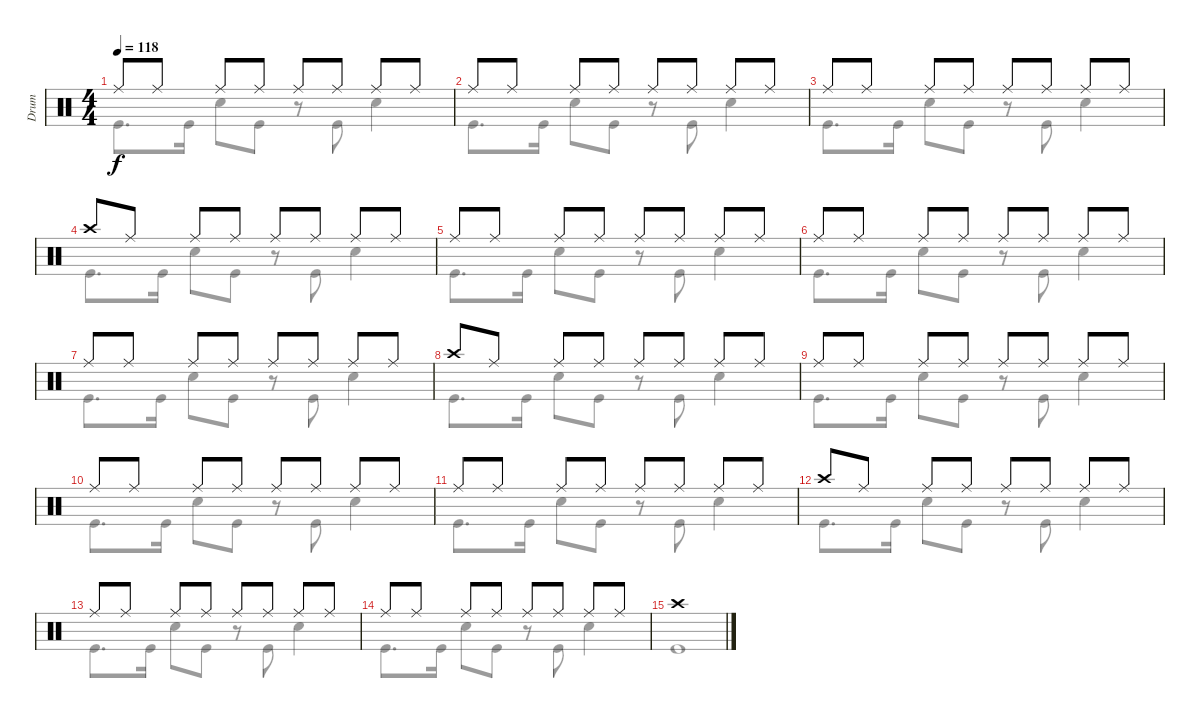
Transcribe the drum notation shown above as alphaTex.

\track ("Drum" "Drum") {instrument percussion}
\staff {score}
\articulation defaults
\voice
\ts (4 4)
\tempo 118
\clef neutral
\ks c "Ride (middle)".8{dy f} "Ride (middle)".8 "Ride (middle)".8 "Ride (middle)".8 "Ride (middle)".8 "Ride (middle)".8 "Ride (middle)".8 "Ride (middle)".8
|
"Ride (middle)".8 "Ride (middle)".8 "Ride (middle)".8 "Ride (middle)".8 "Ride (middle)".8 "Ride (middle)".8 "Ride (middle)".8 "Ride (middle)".8 |
"Ride (middle)".8 "Ride (middle)".8 "Ride (middle)".8 "Ride (middle)".8 "Ride (middle)".8 "Ride (middle)".8 "Ride (middle)".8 "Ride (middle)".8 |
"Crash high (hit)".8 "Ride (middle)".8 "Ride (middle)".8 "Ride (middle)".8 "Ride (middle)".8 "Ride (middle)".8 "Ride (middle)".8 "Ride (middle)".8 |
"Ride (middle)".8 "Ride (middle)".8 "Ride (middle)".8 "Ride (middle)".8 "Ride (middle)".8 "Ride (middle)".8 "Ride (middle)".8 "Ride (middle)".8 |
"Ride (middle)".8 "Ride (middle)".8 "Ride (middle)".8 "Ride (middle)".8 "Ride (middle)".8 "Ride (middle)".8 "Ride (middle)".8 "Ride (middle)".8 |
"Ride (middle)".8 "Ride (middle)".8 "Ride (middle)".8 "Ride (middle)".8 "Ride (middle)".8 "Ride (middle)".8 "Ride (middle)".8 "Ride (middle)".8 |
"Crash high (hit)".8 "Ride (middle)".8 "Ride (middle)".8 "Ride (middle)".8 "Ride (middle)".8 "Ride (middle)".8 "Ride (middle)".8 "Ride (middle)".8 |
"Ride (middle)".8 "Ride (middle)".8 "Ride (middle)".8 "Ride (middle)".8 "Ride (middle)".8 "Ride (middle)".8 "Ride (middle)".8 "Ride (middle)".8 |
"Ride (middle)".8 "Ride (middle)".8 "Ride (middle)".8 "Ride (middle)".8 "Ride (middle)".8 "Ride (middle)".8 "Ride (middle)".8 "Ride (middle)".8 |
"Ride (middle)".8 "Ride (middle)".8 "Ride (middle)".8 "Ride (middle)".8 "Ride (middle)".8 "Ride (middle)".8 "Ride (middle)".8 "Ride (middle)".8 |
"Crash high (hit)".8 "Ride (middle)".8 "Ride (middle)".8 "Ride (middle)".8 "Ride (middle)".8 "Ride (middle)".8 "Ride (middle)".8 "Ride (middle)".8 |
"Ride (middle)".8 "Ride (middle)".8 "Ride (middle)".8 "Ride (middle)".8 "Ride (middle)".8 "Ride (middle)".8 "Ride (middle)".8 "Ride (middle)".8 |
"Ride (middle)".8 "Ride (middle)".8 "Ride (middle)".8 "Ride (middle)".8 "Ride (middle)".8 "Ride (middle)".8 "Ride (middle)".8 "Ride (middle)".8 |
"Crash high (hit)".1
\voice
\clef neutral
\ottava regular
\simile none
\ks c "Kick (hit)".8{d dy f} "Kick (hit)".16 "Snare (hit) 2".8 "Kick (hit)".8
r.8 "Kick (hit)".8 "Snare (hit) 2".4 |
"Kick (hit)".8{d} "Kick (hit)".16 "Snare (hit) 2".8 "Kick (hit)".8 r.8 "Kick (hit)".8 "Snare (hit) 2".4 |
"Kick (hit)".8{d} "Kick (hit)".16 "Snare (hit) 2".8 "Kick (hit)".8 r.8 "Kick (hit)".8 "Snare (hit) 2".4 |
"Kick (hit)".8{d} "Kick (hit)".16 "Snare (hit) 2".8 "Kick (hit)".8 r.8 "Kick (hit)".8 "Snare (hit) 2".4 |
"Kick (hit)".8{d} "Kick (hit)".16 "Snare (hit) 2".8 "Kick (hit)".8 r.8 "Kick (hit)".8 "Snare (hit) 2".4 |
"Kick (hit)".8{d} "Kick (hit)".16 "Snare (hit) 2".8 "Kick (hit)".8 r.8 "Kick (hit)".8 "Snare (hit) 2".4 |
"Kick (hit)".8{d} "Kick (hit)".16 "Snare (hit) 2".8 "Kick (hit)".8 r.8 "Kick (hit)".8 "Snare (hit) 2".4 |
"Kick (hit)".8{d} "Kick (hit)".16 "Snare (hit) 2".8 "Kick (hit)".8 r.8 "Kick (hit)".8 "Snare (hit) 2".4 |
"Kick (hit)".8{d} "Kick (hit)".16 "Snare (hit) 2".8 "Kick (hit)".8 r.8 "Kick (hit)".8 "Snare (hit) 2".4 |
"Kick (hit)".8{d} "Kick (hit)".16 "Snare (hit) 2".8 "Kick (hit)".8 r.8 "Kick (hit)".8 "Snare (hit) 2".4 |
"Kick (hit)".8{d} "Kick (hit)".16 "Snare (hit) 2".8 "Kick (hit)".8 r.8 "Kick (hit)".8 "Snare (hit) 2".4 |
"Kick (hit)".8{d} "Kick (hit)".16 "Snare (hit) 2".8 "Kick (hit)".8 r.8 "Kick (hit)".8 "Snare (hit) 2".4 |
"Kick (hit)".8{d} "Kick (hit)".16 "Snare (hit) 2".8 "Kick (hit)".8 r.8 "Kick (hit)".8 "Snare (hit) 2".4 |
"Kick (hit)".8{d} "Kick (hit)".16 "Snare (hit) 2".8 "Kick (hit)".8 r.8 "Kick (hit)".8 "Snare (hit) 2".4 |
"Kick (hit)".1
